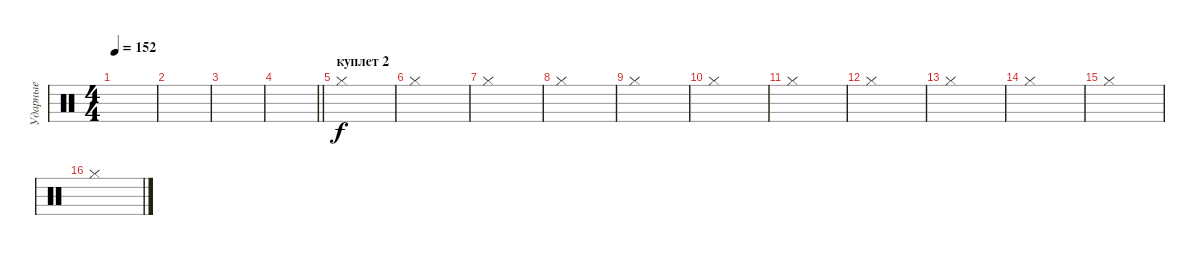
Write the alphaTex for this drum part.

\track ("Ударные" "Ударные") {instrument percussion}
\staff {score}
\articulation defaults
\ts (4 4)
\tempo 152
\clef neutral
\ks c
|
|
|
\barLineRight lightlight
|
\section ("" "куплет 2 ")
"Hi-Hat (closed)".1 |
"Hi-Hat (closed)".1 |
"Hi-Hat (closed)".1 |
"Hi-Hat (closed)".1 |
"Hi-Hat (closed)".1 |
"Hi-Hat (closed)".1 |
"Hi-Hat (closed)".1 |
"Hi-Hat (closed)".1 |
"Hi-Hat (closed)".1 |
"Hi-Hat (closed)".1 |
"Hi-Hat (closed)".1 |
"Hi-Hat (closed)".1
